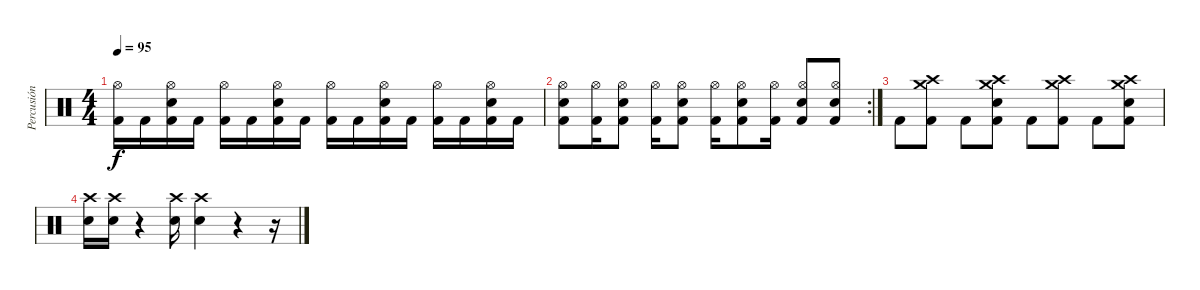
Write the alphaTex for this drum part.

\track ("Percusión" "Percusión") {instrument percussion}
\staff {score}
\articulation defaults
\ts (4 4)
\tempo 95
\clef neutral
\ks c
("Kick (hit) 2" "Hi-Hat (open)").16{dy f} "Kick (hit) 2".16 ("Kick (hit) 2" "Hi-Hat (open)" "Electric Snare (hit)").16 "Kick (hit) 2".16 ("Kick (hit) 2" "Hi-Hat (open)").16 "Kick (hit) 2".16 ("Kick (hit) 2" "Hi-Hat (open)" "Electric Snare (hit)").16 "Kick (hit) 2".16 ("Kick (hit) 2" "Hi-Hat (open)").16 "Kick (hit) 2".16 ("Kick (hit) 2" "Hi-Hat (open)" "Electric Snare (hit)").16 "Kick (hit) 2".16 ("Kick (hit) 2" "Hi-Hat (open)").16 "Kick (hit) 2".16 ("Kick (hit) 2" "Hi-Hat (open)" "Electric Snare (hit)").16 "Kick (hit) 2".16 |
\rc 2
("Kick (hit) 2" "Hi-Hat (open)" "Electric Snare (hit)").8 ("Kick (hit) 2" "Hi-Hat (open)").16 ("Kick (hit) 2" "Hi-Hat (open)" "Electric Snare (hit)").8 ("Kick (hit) 2" "Hi-Hat (open)").16 ("Kick (hit) 2" "Hi-Hat (open)" "Electric Snare (hit)").8 ("Kick (hit) 2" "Hi-Hat (open)").16 ("Kick (hit) 2" "Hi-Hat (open)" "Electric Snare (hit)").8 ("Kick (hit) 2" "Hi-Hat (open)").16 ("Kick (hit) 2" "Hi-Hat (open)" "Electric Snare (hit)").8 ("Kick (hit) 2" "Hi-Hat (open)" "Electric Snare (hit)").8 |
"Kick (hit) 2".8 ("Kick (hit) 2" "Crash medium (hit)" "Crash high (hit)").8 "Kick (hit) 2".8 ("Kick (hit) 2" "Crash medium (hit)" "Crash high (hit)" "Electric Snare (hit)").8 "Kick (hit) 2".8 ("Kick (hit) 2" "Crash medium (hit)" "Crash high (hit)").8 "Kick (hit) 2".8 ("Kick (hit) 2" "Crash medium (hit)" "Crash high (hit)" "Electric Snare (hit)").8 |
("Crash high (hit)" "Electric Snare (hit)").16 ("Crash high (hit)" "Electric Snare (hit)").16 r.4 ("Crash high (hit)" "Electric Snare (hit)").16 ("Crash high (hit)" "Electric Snare (hit)").4 r.4 r.16
